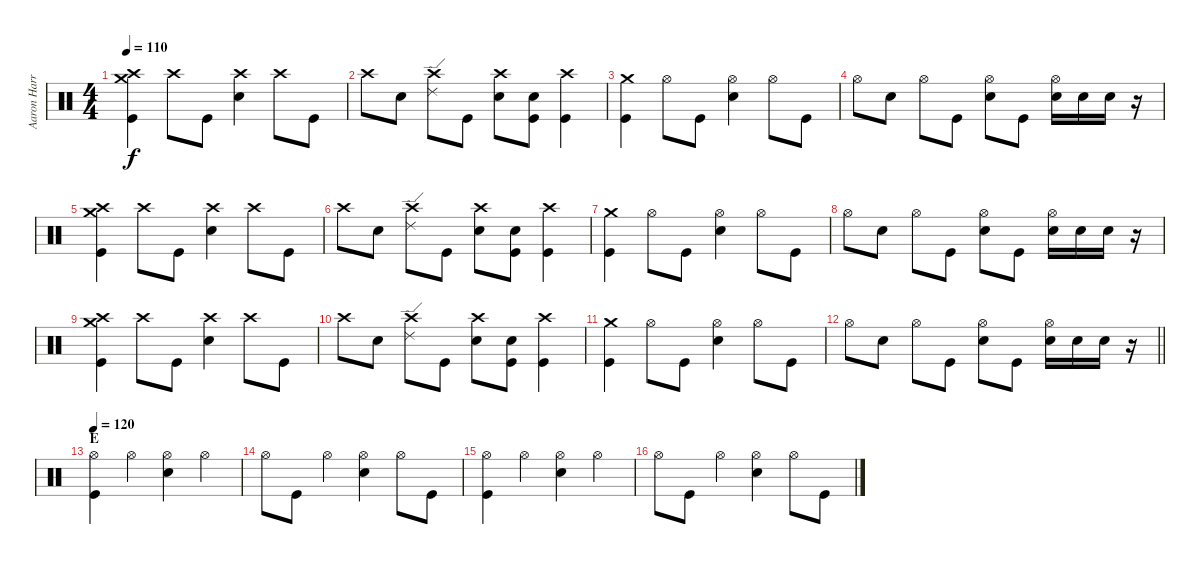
\track ("Aaron Harris" "Aaron Harr") {instrument percussion}
\staff {score}
\articulation defaults
\ts (4 4)
\tempo 110
\clef neutral
\ks c
("Crash high (hit)" "Crash medium (hit)" "Kick (hit)").4{dy f} "Crash high (hit)".8 "Kick (hit)".8 ("Crash high (hit)" "Snare (hit) 2").4 "Crash high (hit)".8 "Kick (hit)".8 |
"Crash high (hit)".8 "Snare (hit) 2".8 ("Crash high (hit)" "Ride (edge) 2").8 "Kick (hit)".8 ("Crash high (hit)" "Snare (hit) 2").8 ("Snare (hit) 2" "Kick (hit)").8 ("Crash high (hit)" "Kick (hit)").4 |
("Crash medium (hit)" "Kick (hit)").4 "Hi-Hat (open)".8 "Kick (hit)".8 ("Hi-Hat (open)" "Snare (hit) 2").4 "Hi-Hat (open)".8 "Kick (hit)".8 |
"Hi-Hat (open)".8 "Snare (hit) 2".8 "Hi-Hat (open)".8 "Kick (hit)".8 ("Hi-Hat (open)" "Snare (hit) 2").8 "Kick (hit)".8 ("Hi-Hat (open)" "Snare (hit) 2").16 "Snare (hit) 2".16 "Snare (hit) 2".16 r.16 |
("Crash high (hit)" "Crash medium (hit)" "Kick (hit)").4 "Crash high (hit)".8 "Kick (hit)".8 ("Crash high (hit)" "Snare (hit) 2").4 "Crash high (hit)".8 "Kick (hit)".8 |
"Crash high (hit)".8 "Snare (hit) 2".8 ("Crash high (hit)" "Ride (edge) 2").8 "Kick (hit)".8 ("Crash high (hit)" "Snare (hit) 2").8 ("Snare (hit) 2" "Kick (hit)").8 ("Crash high (hit)" "Kick (hit)").4 |
("Crash medium (hit)" "Kick (hit)").4 "Hi-Hat (open)".8 "Kick (hit)".8 ("Hi-Hat (open)" "Snare (hit) 2").4 "Hi-Hat (open)".8 "Kick (hit)".8 |
"Hi-Hat (open)".8 "Snare (hit) 2".8 "Hi-Hat (open)".8 "Kick (hit)".8 ("Hi-Hat (open)" "Snare (hit) 2").8 "Kick (hit)".8 ("Hi-Hat (open)" "Snare (hit) 2").16 "Snare (hit) 2".16 "Snare (hit) 2".16 r.16 |
("Crash high (hit)" "Crash medium (hit)" "Kick (hit)").4 "Crash high (hit)".8 "Kick (hit)".8 ("Crash high (hit)" "Snare (hit) 2").4 "Crash high (hit)".8 "Kick (hit)".8 |
"Crash high (hit)".8 "Snare (hit) 2".8 ("Crash high (hit)" "Ride (edge) 2").8 "Kick (hit)".8 ("Crash high (hit)" "Snare (hit) 2").8 ("Snare (hit) 2" "Kick (hit)").8 ("Crash high (hit)" "Kick (hit)").4 |
("Crash medium (hit)" "Kick (hit)").4 "Hi-Hat (open)".8 "Kick (hit)".8 ("Hi-Hat (open)" "Snare (hit) 2").4 "Hi-Hat (open)".8 "Kick (hit)".8 |
\barLineRight lightlight "Hi-Hat (open)".8 "Snare (hit) 2".8 "Hi-Hat (open)".8 "Kick (hit)".8
("Hi-Hat (open)" "Snare (hit) 2").8 "Kick (hit)".8 ("Hi-Hat (open)" "Snare (hit) 2").16 "Snare (hit) 2".16 "Snare (hit) 2".16 r.16 |
\section ("" "E")
\tempo 120
("Hi-Hat (open)" "Kick (hit)").4 "Hi-Hat (open)".4 ("Hi-Hat (open)" "Snare (hit) 2").4 "Hi-Hat (open)".4 |
"Hi-Hat (open)".8 "Kick (hit)".8 "Hi-Hat (open)".4 ("Hi-Hat (open)" "Snare (hit) 2").4 "Hi-Hat (open)".8 "Kick (hit)".8 |
("Hi-Hat (open)" "Kick (hit)").4 "Hi-Hat (open)".4 ("Hi-Hat (open)" "Snare (hit) 2").4 "Hi-Hat (open)".4 |
"Hi-Hat (open)".8 "Kick (hit)".8 "Hi-Hat (open)".4 ("Hi-Hat (open)" "Snare (hit) 2").4 "Hi-Hat (open)".8 "Kick (hit)".8
